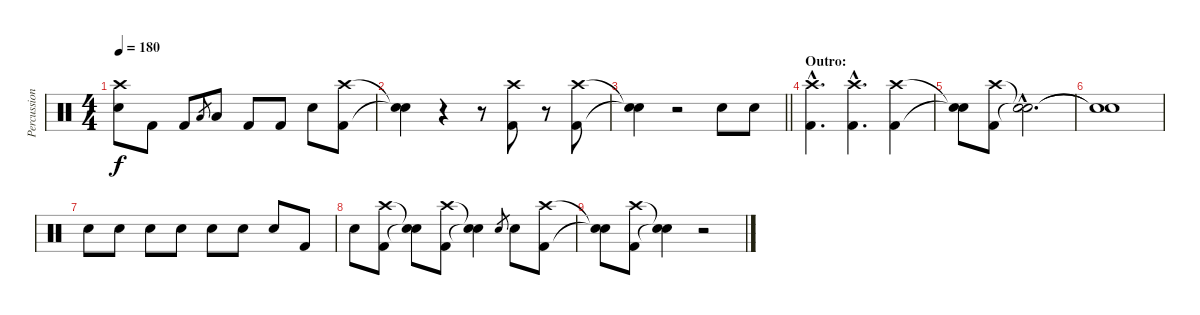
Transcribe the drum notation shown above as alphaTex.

\track ("Percussion" "Percussion") {instrument percussion}
\staff {score}
\articulation defaults
\ts (4 4)
\tempo 180
\clef neutral
\ks c
("Crash high (hit)" "Electric Snare (hit)").8{dy f} "Kick (hit) 2".8 "Kick (hit) 2".8 "Low Tom (hit)".8{gr} "Low Tom (hit)".8 "Kick (hit) 2".8 "Kick (hit) 2".8 "Electric Snare (hit)".8 ("Crash high (hit)" "Kick (hit) 2").8 |
("Snare (hit)"{t} "Snare (hit)"{t}).4 r.4 r.8 ("Crash high (hit)" "Kick (hit) 2").8 r.8 ("Crash high (hit)" "Kick (hit) 2").8 |
\barLineRight lightlight
("Snare (hit)"{t} "Snare (hit)"{t}).4 r.2 "Electric Snare (hit)".8 "Electric Snare (hit)".8 |
\section ("" "Outro:")
("Crash high (hit)"{hac} "Kick (hit) 2"{hac}).4{d} ("Crash high (hit)"{hac} "Kick (hit) 2"{hac}).4{d} ("Crash high (hit)" "Kick (hit) 2").4 |
("Snare (hit)"{t} "Snare (hit)"{t}).8 ("Crash high (hit)" "Kick (hit) 2").8 ("Snare (hit)"{hac t} "Snare (hit)"{hac t}).2{d} |
("Snare (hit)"{t} "Snare (hit)"{t}).1 |
"Electric Snare (hit)".8 "Electric Snare (hit)".8 "Electric Snare (hit)".8 "Electric Snare (hit)".8 "Electric Snare (hit)".8 "Electric Snare (hit)".8 "Electric Snare (hit)".8 "Kick (hit) 2".8 |
"Electric Snare (hit)".8 ("Crash high (hit)" "Kick (hit) 2").8 ("Snare (hit)"{t} "Snare (hit)"{t}).8 ("Crash high (hit)" "Kick (hit) 2").8 ("Snare (hit)"{t} "Snare (hit)"{t}).4 "Electric Snare (hit)".8{gr} "Electric Snare (hit)".8 ("Crash high (hit)" "Kick (hit) 2").8 |
("Snare (hit)"{t} "Snare (hit)"{t}).8 ("Crash high (hit)" "Kick (hit) 2").8 ("Snare (hit)"{t} "Snare (hit)"{t}).4 r.2
